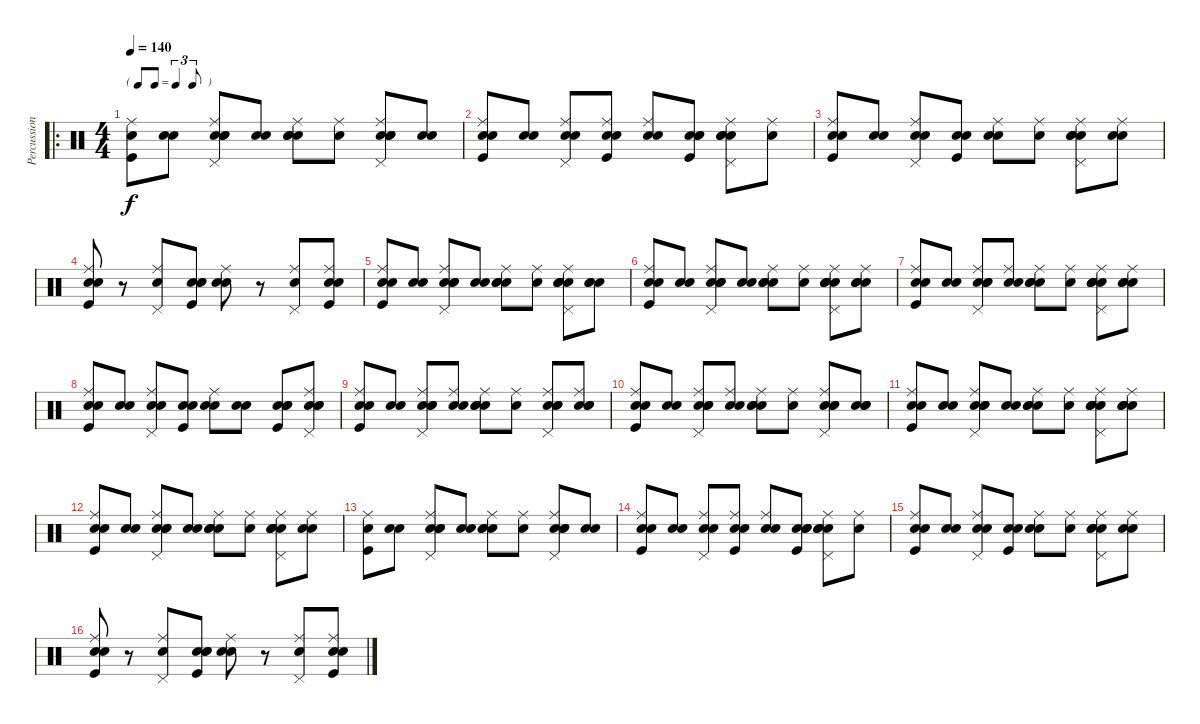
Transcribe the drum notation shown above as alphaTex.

\track ("Percussions" "Percussion") {instrument percussion}
\staff {score}
\articulation defaults
\ro
\ts (4 4)
\tf triplet8th
\tempo 140
\clef neutral
\ks c
("Kick (hit)" "Electric Snare (hit)" "Ride (middle)").8{dy f} ("Snare (hit)" "Electric Snare (hit)").8 ("Snare (hit)" "Snare (hit) 2" "Electric Snare (hit)" "Ride (middle)" "Pedal Hi-Hat (hit)").8 ("Snare (hit)" "Snare (hit) 2").8 ("Snare (hit)" "Snare (hit) 2" "Electric Snare (hit)" "Ride (middle)").8 ("Snare (hit)" "Ride (middle)").8 ("Snare (hit)" "Snare (hit) 2" "Electric Snare (hit)" "Ride (middle)" "Pedal Hi-Hat (hit)").8 ("Snare (hit)" "Snare (hit) 2").8 |
("Snare (hit)" "Kick (hit)" "Electric Snare (hit)" "Ride (middle)").8 ("Snare (hit)" "Electric Snare (hit)").8 ("Snare (hit)" "Snare (hit) 2" "Ride (middle)" "Pedal Hi-Hat (hit)").8 ("Snare (hit)" "Kick (hit)" "Snare (hit) 2" "Ride (middle)").8 ("Snare (hit)" "Electric Snare (hit)" "Ride (middle)").8 ("Snare (hit)" "Kick (hit)" "Electric Snare (hit)" "Hand Clap (hit)").8 ("Snare (hit)" "Electric Snare (hit)" "Ride (middle)" "Pedal Hi-Hat (hit)" "Hand Clap (hit)").8 ("Snare (hit)" "Ride (middle)").8 |
("Snare (hit)" "Kick (hit)" "Electric Snare (hit)" "Ride (middle)").8 ("Snare (hit)" "Electric Snare (hit)").8 ("Snare (hit)" "Snare (hit) 2" "Ride (middle)" "Pedal Hi-Hat (hit)").8 ("Snare (hit)" "Kick (hit)" "Hand Clap (hit)").8 ("Snare (hit)" "Electric Snare (hit)" "Ride (middle)").8 ("Snare (hit)" "Ride (middle)").8 ("Snare (hit)" "Snare (hit) 2" "Ride (middle)" "Pedal Hi-Hat (hit)" "Hand Clap (hit)").8 ("Snare (hit)" "Snare (hit) 2" "Ride (middle)").8 |
("Snare (hit)" "Kick (hit)" "Electric Snare (hit)" "Ride (middle)").8 r.8 ("Snare (hit) 2" "Ride (middle)" "Pedal Hi-Hat (hit)").8 ("Snare (hit)" "Kick (hit)" "Snare (hit) 2" "Hand Clap (hit)").8 ("Snare (hit)" "Electric Snare (hit)" "Ride (middle)").8 r.8 ("Snare (hit) 2" "Ride (middle)" "Pedal Hi-Hat (hit)").8 ("Snare (hit)" "Kick (hit)" "Ride (middle)" "Hand Clap (hit)").8 |
("Snare (hit)" "Kick (hit)" "Electric Snare (hit)" "Ride (middle)").8 ("Snare (hit)" "Electric Snare (hit)").8 ("Snare (hit)" "Snare (hit) 2" "Electric Snare (hit)" "Ride (middle)" "Pedal Hi-Hat (hit)").8 ("Snare (hit)" "Snare (hit) 2").8 ("Snare (hit)" "Snare (hit) 2" "Electric Snare (hit)" "Ride (middle)").8 ("Snare (hit)" "Ride (middle)").8 ("Snare (hit)" "Snare (hit) 2" "Electric Snare (hit)" "Ride (middle)" "Pedal Hi-Hat (hit)" "Hand Clap (hit)").8 ("Snare (hit)" "Snare (hit) 2" "Hand Clap (hit)").8 |
("Snare (hit)" "Kick (hit)" "Electric Snare (hit)" "Ride (middle)").8 ("Snare (hit)" "Electric Snare (hit)").8 ("Snare (hit)" "Snare (hit) 2" "Electric Snare (hit)" "Ride (middle)" "Pedal Hi-Hat (hit)").8 ("Snare (hit)" "Snare (hit) 2").8 ("Snare (hit)" "Snare (hit) 2" "Electric Snare (hit)" "Ride (middle)").8 ("Snare (hit)" "Ride (middle)").8 ("Snare (hit)" "Snare (hit) 2" "Electric Snare (hit)" "Ride (middle)" "Pedal Hi-Hat (hit)" "Hand Clap (hit)").8 ("Snare (hit)" "Snare (hit) 2" "Ride (middle)" "Hand Clap (hit)").8 |
("Snare (hit)" "Kick (hit)" "Electric Snare (hit)" "Ride (middle)").8 ("Snare (hit)" "Electric Snare (hit)").8 ("Snare (hit)" "Snare (hit) 2" "Electric Snare (hit)" "Ride (middle)" "Pedal Hi-Hat (hit)").8 ("Snare (hit)" "Snare (hit) 2" "Ride (middle)").8 ("Snare (hit)" "Snare (hit) 2" "Electric Snare (hit)" "Ride (middle)").8 ("Snare (hit)" "Ride (middle)").8 ("Snare (hit)" "Snare (hit) 2" "Electric Snare (hit)" "Ride (middle)" "Pedal Hi-Hat (hit)" "Hand Clap (hit)").8 ("Snare (hit)" "Snare (hit) 2" "Ride (middle)" "Hand Clap (hit)").8 |
("Snare (hit)" "Kick (hit)" "Electric Snare (hit)" "Ride (middle)").8 ("Snare (hit)" "Electric Snare (hit)").8 ("Snare (hit)" "Snare (hit) 2" "Ride (middle)" "Pedal Hi-Hat (hit)").8 ("Snare (hit)" "Kick (hit)" "Hand Clap (hit)").8 ("Snare (hit)" "Electric Snare (hit)" "Ride (middle)").8 ("Snare (hit)" "Snare (hit) 2").8 ("Snare (hit)" "Kick (hit)" "Electric Snare (hit)" "Hand Clap (hit)").8 ("Snare (hit)" "Electric Snare (hit)" "Ride (middle)" "Pedal Hi-Hat (hit)" "Hand Clap (hit)").8 |
("Snare (hit)" "Kick (hit)" "Electric Snare (hit)" "Ride (middle)").8 ("Snare (hit)" "Electric Snare (hit)").8 ("Snare (hit)" "Snare (hit) 2" "Electric Snare (hit)" "Ride (middle)" "Pedal Hi-Hat (hit)").8 ("Snare (hit)" "Snare (hit) 2" "Ride (middle)").8 ("Snare (hit)" "Snare (hit) 2" "Electric Snare (hit)" "Ride (middle)").8 ("Snare (hit)" "Ride (middle)").8 ("Snare (hit)" "Snare (hit) 2" "Electric Snare (hit)" "Ride (middle)" "Pedal Hi-Hat (hit)").8 ("Snare (hit)" "Snare (hit) 2" "Ride (middle)" "Hand Clap (hit)").8 |
("Snare (hit)" "Kick (hit)" "Electric Snare (hit)" "Ride (middle)").8 ("Snare (hit)" "Electric Snare (hit)").8 ("Snare (hit)" "Snare (hit) 2" "Electric Snare (hit)" "Ride (middle)" "Pedal Hi-Hat (hit)").8 ("Snare (hit)" "Snare (hit) 2" "Ride (middle)").8 ("Snare (hit)" "Snare (hit) 2" "Electric Snare (hit)" "Ride (middle)").8 ("Snare (hit)" "Ride (middle)").8 ("Snare (hit)" "Snare (hit) 2" "Electric Snare (hit)" "Ride (middle)" "Pedal Hi-Hat (hit)").8 ("Snare (hit)" "Snare (hit) 2" "Hand Clap (hit)").8 |
("Snare (hit)" "Kick (hit)" "Electric Snare (hit)" "Ride (middle)").8 ("Snare (hit)" "Electric Snare (hit)").8 ("Snare (hit)" "Snare (hit) 2" "Electric Snare (hit)" "Ride (middle)" "Pedal Hi-Hat (hit)").8 ("Snare (hit)" "Snare (hit) 2").8 ("Snare (hit)" "Snare (hit) 2" "Electric Snare (hit)" "Ride (middle)").8 ("Snare (hit)" "Ride (middle)").8 ("Snare (hit)" "Snare (hit) 2" "Electric Snare (hit)" "Ride (middle)" "Pedal Hi-Hat (hit)" "Hand Clap (hit)").8 ("Snare (hit)" "Snare (hit) 2" "Ride (middle)" "Hand Clap (hit)").8 |
("Snare (hit)" "Kick (hit)" "Electric Snare (hit)" "Ride (middle)").8 ("Snare (hit)" "Electric Snare (hit)").8 ("Snare (hit)" "Snare (hit) 2" "Electric Snare (hit)" "Ride (middle)" "Pedal Hi-Hat (hit)").8 ("Snare (hit)" "Snare (hit) 2").8 ("Snare (hit)" "Snare (hit) 2" "Electric Snare (hit)" "Ride (middle)").8 ("Snare (hit)" "Ride (middle)").8 ("Snare (hit)" "Snare (hit) 2" "Electric Snare (hit)" "Ride (middle)" "Pedal Hi-Hat (hit)" "Hand Clap (hit)").8 ("Snare (hit)" "Snare (hit) 2" "Ride (middle)").8 |
("Kick (hit)" "Electric Snare (hit)" "Ride (middle)").8 ("Snare (hit)" "Electric Snare (hit)").8 ("Snare (hit)" "Snare (hit) 2" "Electric Snare (hit)" "Ride (middle)" "Pedal Hi-Hat (hit)").8 ("Snare (hit)" "Snare (hit) 2").8 ("Snare (hit)" "Snare (hit) 2" "Electric Snare (hit)" "Ride (middle)").8 ("Snare (hit)" "Ride (middle)").8 ("Snare (hit)" "Snare (hit) 2" "Electric Snare (hit)" "Ride (middle)" "Pedal Hi-Hat (hit)").8 ("Snare (hit)" "Snare (hit) 2").8 |
("Snare (hit)" "Kick (hit)" "Electric Snare (hit)" "Ride (middle)").8 ("Snare (hit)" "Electric Snare (hit)").8 ("Snare (hit)" "Snare (hit) 2" "Ride (middle)" "Pedal Hi-Hat (hit)").8 ("Snare (hit)" "Kick (hit)" "Snare (hit) 2" "Ride (middle)").8 ("Snare (hit)" "Electric Snare (hit)" "Ride (middle)").8 ("Snare (hit)" "Kick (hit)" "Electric Snare (hit)" "Hand Clap (hit)").8 ("Snare (hit)" "Electric Snare (hit)" "Ride (middle)" "Pedal Hi-Hat (hit)" "Hand Clap (hit)").8 ("Snare (hit)" "Ride (middle)").8 |
("Snare (hit)" "Kick (hit)" "Electric Snare (hit)" "Ride (middle)").8 ("Snare (hit)" "Electric Snare (hit)").8 ("Snare (hit)" "Snare (hit) 2" "Ride (middle)" "Pedal Hi-Hat (hit)").8 ("Snare (hit)" "Kick (hit)" "Hand Clap (hit)").8 ("Snare (hit)" "Electric Snare (hit)" "Ride (middle)").8 ("Snare (hit)" "Ride (middle)").8 ("Snare (hit)" "Snare (hit) 2" "Ride (middle)" "Pedal Hi-Hat (hit)" "Hand Clap (hit)").8 ("Snare (hit)" "Snare (hit) 2" "Ride (middle)").8 |
("Snare (hit)" "Kick (hit)" "Electric Snare (hit)" "Ride (middle)").8 r.8 ("Snare (hit) 2" "Ride (middle)" "Pedal Hi-Hat (hit)").8 ("Snare (hit)" "Kick (hit)" "Snare (hit) 2" "Hand Clap (hit)").8 ("Snare (hit)" "Electric Snare (hit)" "Ride (middle)").8 r.8 ("Snare (hit) 2" "Ride (middle)" "Pedal Hi-Hat (hit)").8 ("Snare (hit)" "Kick (hit)" "Ride (middle)" "Hand Clap (hit)").8
